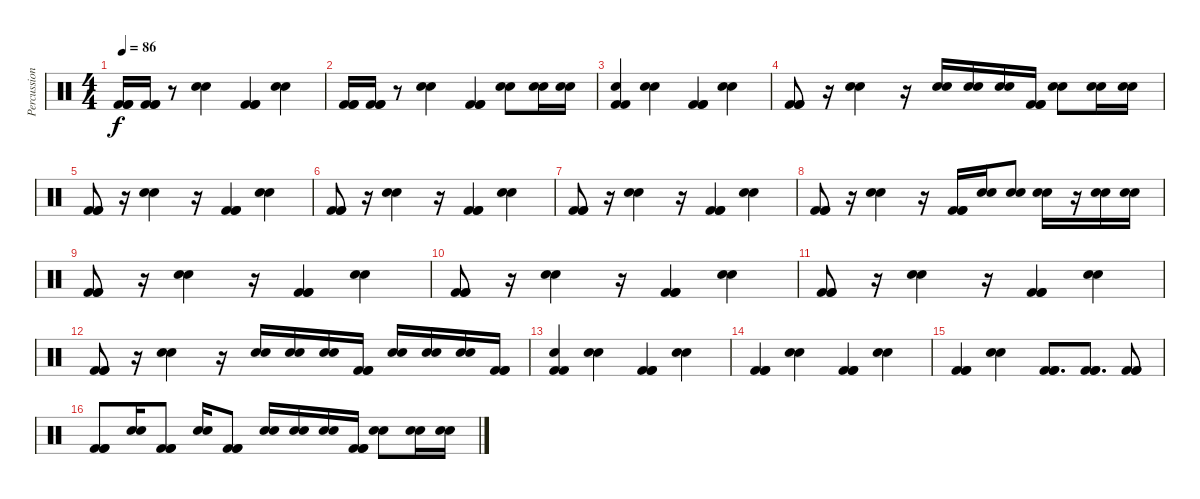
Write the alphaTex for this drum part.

\track ("Percussions" "Percussion") {instrument percussion}
\staff {score}
\articulation defaults
\ts (4 4)
\tempo 86
\clef neutral
\ks c
("Kick (hit) 2" "Kick (hit) 2" "Kick (hit) 2").16{dy f} ("Kick (hit) 2" "Kick (hit) 2" "Kick (hit) 2").16 r.8 ("Snare (hit) 2" "Snare (hit) 2").4 ("Kick (hit) 2" "Kick (hit) 2" "Kick (hit) 2").4 ("Snare (hit) 2" "Snare (hit) 2").4 |
("Kick (hit) 2" "Kick (hit) 2" "Kick (hit) 2").16 ("Kick (hit) 2" "Kick (hit) 2" "Kick (hit) 2").16 r.8 ("Snare (hit) 2" "Snare (hit) 2").4 ("Kick (hit) 2" "Kick (hit) 2" "Kick (hit) 2").4 ("Snare (hit) 2" "Snare (hit) 2").8 ("Snare (hit) 2" "Snare (hit) 2").16 ("Snare (hit) 2" "Snare (hit) 2").16 |
("Kick (hit) 2" "Kick (hit) 2" "Snare (hit) 2").4 ("Snare (hit) 2" "Snare (hit) 2").4 ("Kick (hit) 2" "Kick (hit) 2" "Kick (hit) 2").4 ("Snare (hit) 2" "Snare (hit) 2").4 |
("Kick (hit) 2" "Kick (hit) 2" "Kick (hit) 2").8 r.16 ("Snare (hit) 2" "Snare (hit) 2").4 r.16 ("Snare (hit) 2" "Snare (hit) 2").16 ("Snare (hit) 2" "Snare (hit) 2").16 ("Snare (hit) 2" "Snare (hit) 2").16 ("Kick (hit) 2" "Kick (hit) 2" "Kick (hit) 2").16 ("Snare (hit) 2" "Snare (hit) 2").8 ("Snare (hit) 2" "Snare (hit) 2").16 ("Snare (hit) 2" "Snare (hit) 2").16 |
("Kick (hit) 2" "Kick (hit) 2" "Kick (hit) 2").8 r.16 ("Snare (hit) 2" "Snare (hit) 2").4 r.16 ("Kick (hit) 2" "Kick (hit) 2" "Kick (hit) 2").4 ("Snare (hit) 2" "Snare (hit) 2").4 |
("Kick (hit) 2" "Kick (hit) 2" "Kick (hit) 2").8 r.16 ("Snare (hit) 2" "Snare (hit) 2").4 r.16 ("Kick (hit) 2" "Kick (hit) 2" "Kick (hit) 2").4 ("Snare (hit) 2" "Snare (hit) 2").4 |
("Kick (hit) 2" "Kick (hit) 2" "Kick (hit) 2").8 r.16 ("Snare (hit) 2" "Snare (hit) 2").4 r.16 ("Kick (hit) 2" "Kick (hit) 2" "Kick (hit) 2").4 ("Snare (hit) 2" "Snare (hit) 2").4 |
("Kick (hit) 2" "Kick (hit) 2" "Kick (hit) 2").8 r.16 ("Snare (hit) 2" "Snare (hit) 2").4 r.16 ("Kick (hit) 2" "Kick (hit) 2" "Kick (hit) 2").16 ("Snare (hit) 2" "Snare (hit) 2").16 ("Snare (hit) 2" "Snare (hit) 2").8 ("Snare (hit) 2" "Snare (hit) 2").16 r.16 ("Snare (hit) 2" "Snare (hit) 2").16 ("Snare (hit) 2" "Snare (hit) 2").16 |
("Kick (hit) 2" "Kick (hit) 2" "Kick (hit) 2").8 r.16 ("Snare (hit) 2" "Snare (hit) 2").4 r.16 ("Kick (hit) 2" "Kick (hit) 2" "Kick (hit) 2").4 ("Snare (hit) 2" "Snare (hit) 2").4 |
("Kick (hit) 2" "Kick (hit) 2" "Kick (hit) 2").8 r.16 ("Snare (hit) 2" "Snare (hit) 2").4 r.16 ("Kick (hit) 2" "Kick (hit) 2" "Kick (hit) 2").4 ("Snare (hit) 2" "Snare (hit) 2").4 |
("Kick (hit) 2" "Kick (hit) 2" "Kick (hit) 2").8 r.16 ("Snare (hit) 2" "Snare (hit) 2").4 r.16 ("Kick (hit) 2" "Kick (hit) 2" "Kick (hit) 2").4 ("Snare (hit) 2" "Snare (hit) 2").4 |
("Kick (hit) 2" "Kick (hit) 2" "Kick (hit) 2").8 r.16 ("Snare (hit) 2" "Snare (hit) 2").4 r.16 ("Snare (hit) 2" "Snare (hit) 2").16 ("Snare (hit) 2" "Snare (hit) 2").16 ("Snare (hit) 2" "Snare (hit) 2").16 ("Kick (hit) 2" "Kick (hit) 2" "Kick (hit) 2").16 ("Snare (hit) 2" "Snare (hit) 2").16 ("Snare (hit) 2" "Snare (hit) 2").16 ("Snare (hit) 2" "Snare (hit) 2").16 ("Kick (hit) 2" "Kick (hit) 2" "Kick (hit) 2").16 |
("Kick (hit) 2" "Snare (hit) 2" "Kick (hit) 2").4 ("Snare (hit) 2" "Snare (hit) 2").4 ("Kick (hit) 2" "Kick (hit) 2" "Kick (hit) 2").4 ("Snare (hit) 2" "Snare (hit) 2").4 |
("Kick (hit) 2" "Kick (hit) 2" "Kick (hit) 2").4 ("Snare (hit) 2" "Snare (hit) 2").4 ("Kick (hit) 2" "Kick (hit) 2" "Kick (hit) 2").4 ("Snare (hit) 2" "Snare (hit) 2").4 |
("Kick (hit) 2" "Kick (hit) 2" "Kick (hit) 2").4 ("Snare (hit) 2" "Snare (hit) 2").4 ("Kick (hit) 2" "Kick (hit) 2" "Kick (hit) 2").8{d} ("Kick (hit) 2" "Kick (hit) 2" "Kick (hit) 2").8{d} ("Kick (hit) 2" "Kick (hit) 2" "Kick (hit) 2").8 |
("Kick (hit) 2" "Kick (hit) 2" "Kick (hit) 2").8 ("Snare (hit) 2" "Snare (hit) 2").16 ("Kick (hit) 2" "Kick (hit) 2" "Kick (hit) 2").8 ("Snare (hit) 2" "Snare (hit) 2").16 ("Kick (hit) 2" "Kick (hit) 2" "Kick (hit) 2").8 ("Snare (hit) 2" "Snare (hit) 2").16 ("Snare (hit) 2" "Snare (hit) 2").16 ("Snare (hit) 2" "Snare (hit) 2").16 ("Kick (hit) 2" "Kick (hit) 2" "Kick (hit) 2").16 ("Snare (hit) 2" "Snare (hit) 2").8 ("Snare (hit) 2" "Snare (hit) 2").16 ("Snare (hit) 2" "Snare (hit) 2").16
